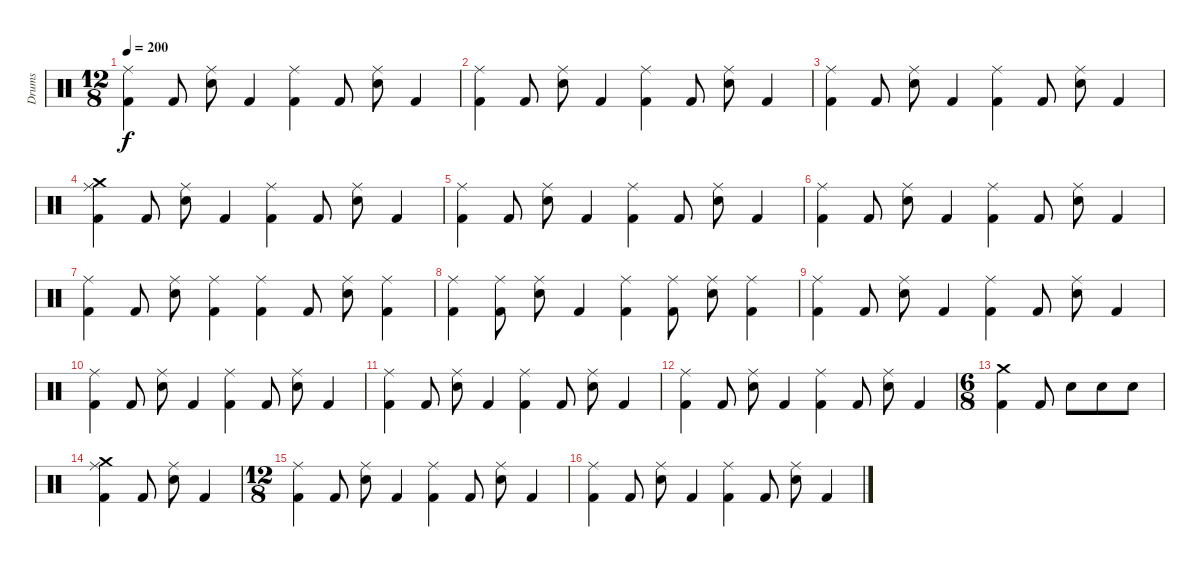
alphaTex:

\track ("Drums" "Drums") {instrument percussion}
\staff {score}
\articulation defaults
\ts (12 8)
\tempo 200
\clef neutral
\ks c
("Ride (middle)" "Kick (hit) 2").4{dy f} "Kick (hit) 2".8 ("Ride (middle)" "Electric Snare (hit)").8 "Kick (hit) 2".4 ("Ride (middle)" "Kick (hit) 2").4 "Kick (hit) 2".8 ("Ride (middle)" "Electric Snare (hit)").8 "Kick (hit) 2".4 |
("Ride (middle)" "Kick (hit) 2").4 "Kick (hit) 2".8 ("Ride (middle)" "Electric Snare (hit)").8 "Kick (hit) 2".4 ("Ride (middle)" "Kick (hit) 2").4 "Kick (hit) 2".8 ("Ride (middle)" "Electric Snare (hit)").8 "Kick (hit) 2".4 |
("Ride (middle)" "Kick (hit) 2").4 "Kick (hit) 2".8 ("Ride (middle)" "Electric Snare (hit)").8 "Kick (hit) 2".4 ("Ride (middle)" "Kick (hit) 2").4 "Kick (hit) 2".8 ("Ride (middle)" "Electric Snare (hit)").8 "Kick (hit) 2".4 |
("Crash medium (hit)" "Ride (middle)" "Kick (hit) 2").4 "Kick (hit) 2".8 ("Ride (middle)" "Electric Snare (hit)").8 "Kick (hit) 2".4 ("Ride (middle)" "Kick (hit) 2").4 "Kick (hit) 2".8 ("Ride (middle)" "Electric Snare (hit)").8 "Kick (hit) 2".4 |
("Ride (middle)" "Kick (hit) 2").4 "Kick (hit) 2".8 ("Ride (middle)" "Electric Snare (hit)").8 "Kick (hit) 2".4 ("Ride (middle)" "Kick (hit) 2").4 "Kick (hit) 2".8 ("Ride (middle)" "Electric Snare (hit)").8 "Kick (hit) 2".4 |
("Ride (middle)" "Kick (hit) 2").4 "Kick (hit) 2".8 ("Ride (middle)" "Electric Snare (hit)").8 "Kick (hit) 2".4 ("Ride (middle)" "Kick (hit) 2").4 "Kick (hit) 2".8 ("Ride (middle)" "Electric Snare (hit)").8 "Kick (hit) 2".4 |
("Ride (middle)" "Kick (hit) 2").4 "Kick (hit) 2".8 ("Ride (middle)" "Electric Snare (hit)").8 ("Ride (middle)" "Kick (hit) 2").4 ("Ride (middle)" "Kick (hit) 2").4 "Kick (hit) 2".8 ("Ride (middle)" "Electric Snare (hit)").8 ("Ride (middle)" "Kick (hit) 2").4 |
("Ride (middle)" "Kick (hit) 2").4 ("Ride (middle)" "Kick (hit) 2").8 ("Ride (middle)" "Electric Snare (hit)").8 "Kick (hit) 2".4 ("Ride (middle)" "Kick (hit) 2").4 ("Ride (middle)" "Kick (hit) 2").8 ("Ride (middle)" "Electric Snare (hit)").8 ("Ride (middle)" "Kick (hit) 2").4 |
("Ride (middle)" "Kick (hit) 2").4 "Kick (hit) 2".8 ("Ride (middle)" "Electric Snare (hit)").8 "Kick (hit) 2".4 ("Ride (middle)" "Kick (hit) 2").4 "Kick (hit) 2".8 ("Ride (middle)" "Electric Snare (hit)").8 "Kick (hit) 2".4 |
("Ride (middle)" "Kick (hit) 2").4 "Kick (hit) 2".8 ("Ride (middle)" "Electric Snare (hit)").8 "Kick (hit) 2".4 ("Ride (middle)" "Kick (hit) 2").4 "Kick (hit) 2".8 ("Ride (middle)" "Electric Snare (hit)").8 "Kick (hit) 2".4 |
("Ride (middle)" "Kick (hit) 2").4 "Kick (hit) 2".8 ("Ride (middle)" "Electric Snare (hit)").8 "Kick (hit) 2".4 ("Ride (middle)" "Kick (hit) 2").4 "Kick (hit) 2".8 ("Ride (middle)" "Electric Snare (hit)").8 "Kick (hit) 2".4 |
("Ride (middle)" "Kick (hit) 2").4 "Kick (hit) 2".8 ("Ride (middle)" "Electric Snare (hit)").8 "Kick (hit) 2".4 ("Ride (middle)" "Kick (hit) 2").4 "Kick (hit) 2".8 ("Ride (middle)" "Electric Snare (hit)").8 "Kick (hit) 2".4 |
\ts (6 8)
("Crash medium (hit)" "Kick (hit) 2").4 "Kick (hit) 2".8 "Electric Snare (hit)".8 "Electric Snare (hit)".8 "Electric Snare (hit)".8 |
("Crash medium (hit)" "Ride (middle)" "Kick (hit) 2").4 "Kick (hit) 2".8 ("Ride (middle)" "Electric Snare (hit)").8 "Kick (hit) 2".4 |
\ts (12 8)
("Ride (middle)" "Kick (hit) 2").4 "Kick (hit) 2".8 ("Ride (middle)" "Electric Snare (hit)").8 "Kick (hit) 2".4 ("Ride (middle)" "Kick (hit) 2").4 "Kick (hit) 2".8 ("Ride (middle)" "Electric Snare (hit)").8 "Kick (hit) 2".4 |
("Ride (middle)" "Kick (hit) 2").4 "Kick (hit) 2".8 ("Ride (middle)" "Electric Snare (hit)").8 "Kick (hit) 2".4 ("Ride (middle)" "Kick (hit) 2").4 "Kick (hit) 2".8 ("Ride (middle)" "Electric Snare (hit)").8 "Kick (hit) 2".4
